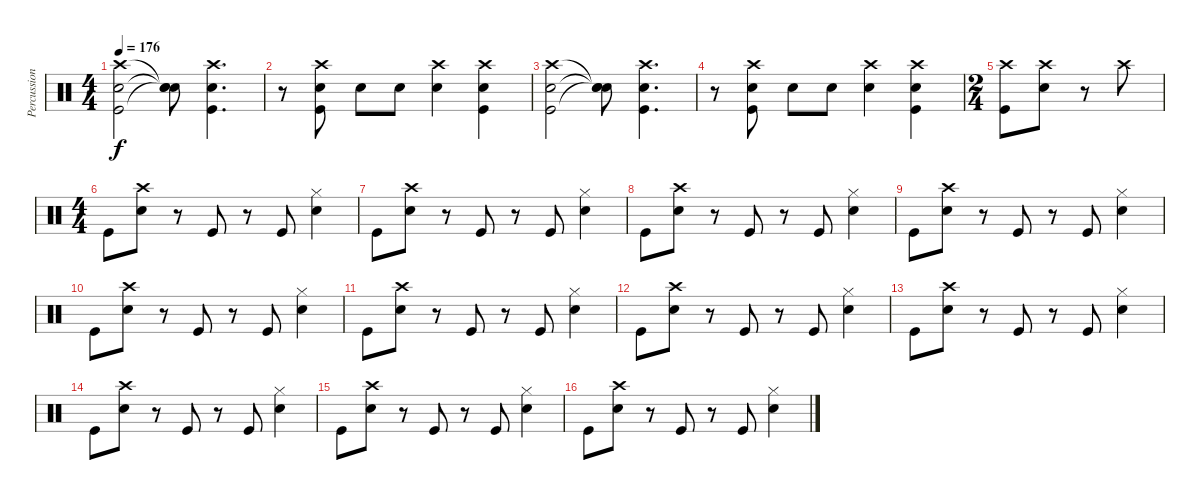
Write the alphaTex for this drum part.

\track ("Percussions" "Percussion") {instrument percussion}
\staff {score}
\articulation defaults
\ts (4 4)
\tempo 176
\clef neutral
\ks c
("Crash high (hit)" "Snare (hit) 2" "Kick (hit)").2{dy f} ("Snare (hit)"{t} "Snare (hit)"{t} "Snare (hit)"{t}).8 ("Crash high (hit)" "Snare (hit) 2" "Kick (hit)").4{d} |
r.8 ("Crash high (hit)" "Snare (hit) 2" "Kick (hit)").8 "Snare (hit) 2".8 "Snare (hit) 2".8 ("Crash high (hit)" "Snare (hit) 2").4 ("Crash high (hit)" "Snare (hit) 2" "Kick (hit)").4 |
("Crash high (hit)" "Snare (hit) 2" "Kick (hit)").2 ("Snare (hit)"{t} "Snare (hit)"{t} "Snare (hit)"{t}).8 ("Crash high (hit)" "Snare (hit) 2" "Kick (hit)").4{d} |
r.8 ("Crash high (hit)" "Snare (hit) 2" "Kick (hit)").8 "Snare (hit) 2".8 "Snare (hit) 2".8 ("Crash high (hit)" "Snare (hit) 2").4 ("Crash high (hit)" "Snare (hit) 2" "Kick (hit)").4 |
\ts (2 4)
("Crash high (hit)" "Kick (hit)").8 ("Crash high (hit)" "Snare (hit) 2").8 r.8 "Crash high (hit)".8 |
\ts (4 4)
"Kick (hit)".8 ("Crash high (hit)" "Snare (hit) 2").8 r.8 "Kick (hit)".8 r.8 "Kick (hit)".8 ("Hi-Hat (closed)" "Snare (hit) 2").4 |
"Kick (hit)".8 ("Crash high (hit)" "Snare (hit) 2").8 r.8 "Kick (hit)".8 r.8 "Kick (hit)".8 ("Hi-Hat (closed)" "Snare (hit) 2").4 |
"Kick (hit)".8 ("Crash high (hit)" "Snare (hit) 2").8 r.8 "Kick (hit)".8 r.8 "Kick (hit)".8 ("Hi-Hat (closed)" "Snare (hit) 2").4 |
"Kick (hit)".8 ("Crash high (hit)" "Snare (hit) 2").8 r.8 "Kick (hit)".8 r.8 "Kick (hit)".8 ("Hi-Hat (closed)" "Snare (hit) 2").4 |
"Kick (hit)".8 ("Crash high (hit)" "Snare (hit) 2").8 r.8 "Kick (hit)".8 r.8 "Kick (hit)".8 ("Hi-Hat (closed)" "Snare (hit) 2").4 |
"Kick (hit)".8 ("Crash high (hit)" "Snare (hit) 2").8 r.8 "Kick (hit)".8 r.8 "Kick (hit)".8 ("Hi-Hat (closed)" "Snare (hit) 2").4 |
"Kick (hit)".8 ("Crash high (hit)" "Snare (hit) 2").8 r.8 "Kick (hit)".8 r.8 "Kick (hit)".8 ("Hi-Hat (closed)" "Snare (hit) 2").4 |
"Kick (hit)".8 ("Crash high (hit)" "Snare (hit) 2").8 r.8 "Kick (hit)".8 r.8 "Kick (hit)".8 ("Hi-Hat (closed)" "Snare (hit) 2").4 |
"Kick (hit)".8 ("Crash high (hit)" "Snare (hit) 2").8 r.8 "Kick (hit)".8 r.8 "Kick (hit)".8 ("Hi-Hat (closed)" "Snare (hit) 2").4 |
"Kick (hit)".8 ("Crash high (hit)" "Snare (hit) 2").8 r.8 "Kick (hit)".8 r.8 "Kick (hit)".8 ("Hi-Hat (closed)" "Snare (hit) 2").4 |
"Kick (hit)".8 ("Crash high (hit)" "Snare (hit) 2").8 r.8 "Kick (hit)".8 r.8 "Kick (hit)".8 ("Hi-Hat (closed)" "Snare (hit) 2").4
